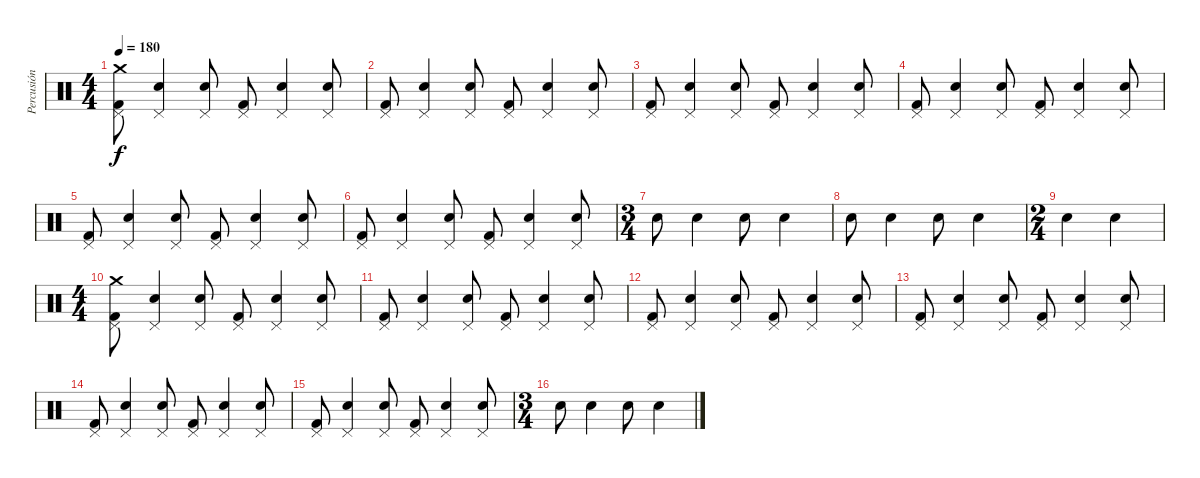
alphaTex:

\track ("Percusión" "Percusión") {instrument percussion}
\staff {score}
\articulation defaults
\ts (4 4)
\tempo 180
\clef neutral
\ks c
("Kick (hit) 2" "Pedal Hi-Hat (hit)" "Crash medium (hit)").8{dy f} ("Electric Snare (hit)" "Pedal Hi-Hat (hit)").4 ("Electric Snare (hit)" "Pedal Hi-Hat (hit)").8 ("Kick (hit) 2" "Pedal Hi-Hat (hit)").8 ("Electric Snare (hit)" "Pedal Hi-Hat (hit)").4 ("Electric Snare (hit)" "Pedal Hi-Hat (hit)").8 |
("Kick (hit) 2" "Pedal Hi-Hat (hit)").8 ("Electric Snare (hit)" "Pedal Hi-Hat (hit)").4 ("Electric Snare (hit)" "Pedal Hi-Hat (hit)").8 ("Kick (hit) 2" "Pedal Hi-Hat (hit)").8 ("Electric Snare (hit)" "Pedal Hi-Hat (hit)").4 ("Electric Snare (hit)" "Pedal Hi-Hat (hit)").8 |
("Kick (hit) 2" "Pedal Hi-Hat (hit)").8 ("Electric Snare (hit)" "Pedal Hi-Hat (hit)").4 ("Electric Snare (hit)" "Pedal Hi-Hat (hit)").8 ("Kick (hit) 2" "Pedal Hi-Hat (hit)").8 ("Electric Snare (hit)" "Pedal Hi-Hat (hit)").4 ("Electric Snare (hit)" "Pedal Hi-Hat (hit)").8 |
("Kick (hit) 2" "Pedal Hi-Hat (hit)").8 ("Electric Snare (hit)" "Pedal Hi-Hat (hit)").4 ("Electric Snare (hit)" "Pedal Hi-Hat (hit)").8 ("Kick (hit) 2" "Pedal Hi-Hat (hit)").8 ("Electric Snare (hit)" "Pedal Hi-Hat (hit)").4 ("Electric Snare (hit)" "Pedal Hi-Hat (hit)").8 |
("Kick (hit) 2" "Pedal Hi-Hat (hit)").8 ("Electric Snare (hit)" "Pedal Hi-Hat (hit)").4 ("Electric Snare (hit)" "Pedal Hi-Hat (hit)").8 ("Kick (hit) 2" "Pedal Hi-Hat (hit)").8 ("Electric Snare (hit)" "Pedal Hi-Hat (hit)").4 ("Electric Snare (hit)" "Pedal Hi-Hat (hit)").8 |
("Kick (hit) 2" "Pedal Hi-Hat (hit)").8 ("Electric Snare (hit)" "Pedal Hi-Hat (hit)").4 ("Electric Snare (hit)" "Pedal Hi-Hat (hit)").8 ("Kick (hit) 2" "Pedal Hi-Hat (hit)").8 ("Electric Snare (hit)" "Pedal Hi-Hat (hit)").4 ("Electric Snare (hit)" "Pedal Hi-Hat (hit)").8 |
\ts (3 4)
"Electric Snare (hit)".8 "Electric Snare (hit)".4 "Electric Snare (hit)".8 "Electric Snare (hit)".4 |
"Electric Snare (hit)".8 "Electric Snare (hit)".4 "Electric Snare (hit)".8 "Electric Snare (hit)".4 |
\ts (2 4)
"Electric Snare (hit)".4 "Electric Snare (hit)".4 |
\ts (4 4)
("Kick (hit) 2" "Pedal Hi-Hat (hit)" "Crash medium (hit)").8 ("Electric Snare (hit)" "Pedal Hi-Hat (hit)").4 ("Electric Snare (hit)" "Pedal Hi-Hat (hit)").8 ("Kick (hit) 2" "Pedal Hi-Hat (hit)").8 ("Electric Snare (hit)" "Pedal Hi-Hat (hit)").4 ("Electric Snare (hit)" "Pedal Hi-Hat (hit)").8 |
("Kick (hit) 2" "Pedal Hi-Hat (hit)").8 ("Electric Snare (hit)" "Pedal Hi-Hat (hit)").4 ("Electric Snare (hit)" "Pedal Hi-Hat (hit)").8 ("Kick (hit) 2" "Pedal Hi-Hat (hit)").8 ("Electric Snare (hit)" "Pedal Hi-Hat (hit)").4 ("Electric Snare (hit)" "Pedal Hi-Hat (hit)").8 |
("Kick (hit) 2" "Pedal Hi-Hat (hit)").8 ("Electric Snare (hit)" "Pedal Hi-Hat (hit)").4 ("Electric Snare (hit)" "Pedal Hi-Hat (hit)").8 ("Kick (hit) 2" "Pedal Hi-Hat (hit)").8 ("Electric Snare (hit)" "Pedal Hi-Hat (hit)").4 ("Electric Snare (hit)" "Pedal Hi-Hat (hit)").8 |
("Kick (hit) 2" "Pedal Hi-Hat (hit)").8 ("Electric Snare (hit)" "Pedal Hi-Hat (hit)").4 ("Electric Snare (hit)" "Pedal Hi-Hat (hit)").8 ("Kick (hit) 2" "Pedal Hi-Hat (hit)").8 ("Electric Snare (hit)" "Pedal Hi-Hat (hit)").4 ("Electric Snare (hit)" "Pedal Hi-Hat (hit)").8 |
("Kick (hit) 2" "Pedal Hi-Hat (hit)").8 ("Electric Snare (hit)" "Pedal Hi-Hat (hit)").4 ("Electric Snare (hit)" "Pedal Hi-Hat (hit)").8 ("Kick (hit) 2" "Pedal Hi-Hat (hit)").8 ("Electric Snare (hit)" "Pedal Hi-Hat (hit)").4 ("Electric Snare (hit)" "Pedal Hi-Hat (hit)").8 |
("Kick (hit) 2" "Pedal Hi-Hat (hit)").8 ("Electric Snare (hit)" "Pedal Hi-Hat (hit)").4 ("Electric Snare (hit)" "Pedal Hi-Hat (hit)").8 ("Kick (hit) 2" "Pedal Hi-Hat (hit)").8 ("Electric Snare (hit)" "Pedal Hi-Hat (hit)").4 ("Electric Snare (hit)" "Pedal Hi-Hat (hit)").8 |
\ts (3 4)
"Electric Snare (hit)".8 "Electric Snare (hit)".4 "Electric Snare (hit)".8 "Electric Snare (hit)".4
